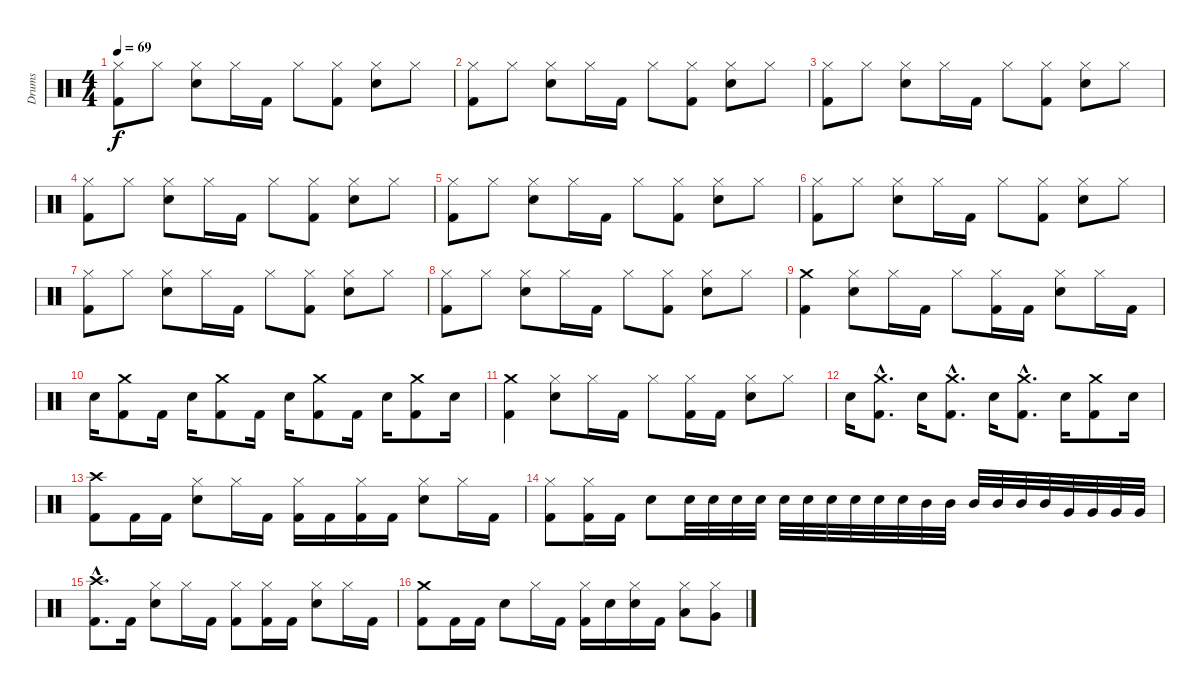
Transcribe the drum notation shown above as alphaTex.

\track ("Drums" "Drums") {instrument percussion}
\staff {score}
\articulation defaults
\ts (4 4)
\tempo 69
\clef neutral
\ks c
("Hi-Hat (closed)" "Kick (hit) 2").8{dy f} "Hi-Hat (closed)".8 ("Hi-Hat (closed)" "Snare (hit) 2").8 "Hi-Hat (closed)".16 "Kick (hit) 2".16 "Hi-Hat (closed)".8 ("Kick (hit) 2" "Hi-Hat (closed)").8 ("Hi-Hat (closed)" "Snare (hit) 2").8 "Hi-Hat (closed)".8 |
("Hi-Hat (closed)" "Kick (hit) 2").8 "Hi-Hat (closed)".8 ("Hi-Hat (closed)" "Snare (hit) 2").8 "Hi-Hat (closed)".16 "Kick (hit) 2".16 "Hi-Hat (closed)".8 ("Kick (hit) 2" "Hi-Hat (closed)").8 ("Hi-Hat (closed)" "Snare (hit) 2").8 "Hi-Hat (closed)".8 |
("Hi-Hat (closed)" "Kick (hit) 2").8 "Hi-Hat (closed)".8 ("Hi-Hat (closed)" "Snare (hit) 2").8 "Hi-Hat (closed)".16 "Kick (hit) 2".16 "Hi-Hat (closed)".8 ("Kick (hit) 2" "Hi-Hat (closed)").8 ("Hi-Hat (closed)" "Snare (hit) 2").8 "Hi-Hat (closed)".8 |
("Hi-Hat (closed)" "Kick (hit) 2").8 "Hi-Hat (closed)".8 ("Hi-Hat (closed)" "Snare (hit) 2").8 "Hi-Hat (closed)".16 "Kick (hit) 2".16 "Hi-Hat (closed)".8 ("Kick (hit) 2" "Hi-Hat (closed)").8 ("Hi-Hat (closed)" "Snare (hit) 2").8 "Hi-Hat (closed)".8 |
("Hi-Hat (closed)" "Kick (hit) 2").8 "Hi-Hat (closed)".8 ("Hi-Hat (closed)" "Snare (hit) 2").8 "Hi-Hat (closed)".16 "Kick (hit) 2".16 "Hi-Hat (closed)".8 ("Kick (hit) 2" "Hi-Hat (closed)").8 ("Hi-Hat (closed)" "Snare (hit) 2").8 "Hi-Hat (closed)".8 |
("Hi-Hat (closed)" "Kick (hit) 2").8 "Hi-Hat (closed)".8 ("Hi-Hat (closed)" "Snare (hit) 2").8 "Hi-Hat (closed)".16 "Kick (hit) 2".16 "Hi-Hat (closed)".8 ("Kick (hit) 2" "Hi-Hat (closed)").8 ("Hi-Hat (closed)" "Snare (hit) 2").8 "Hi-Hat (closed)".8 |
("Hi-Hat (closed)" "Kick (hit) 2").8 "Hi-Hat (closed)".8 ("Hi-Hat (closed)" "Snare (hit) 2").8 "Hi-Hat (closed)".16 "Kick (hit) 2".16 "Hi-Hat (closed)".8 ("Kick (hit) 2" "Hi-Hat (closed)").8 ("Hi-Hat (closed)" "Snare (hit) 2").8 "Hi-Hat (closed)".8 |
("Hi-Hat (closed)" "Kick (hit) 2").8 "Hi-Hat (closed)".8 ("Hi-Hat (closed)" "Snare (hit) 2").8 "Hi-Hat (closed)".16 "Kick (hit) 2".16 "Hi-Hat (closed)".8 ("Kick (hit) 2" "Hi-Hat (closed)").8 ("Hi-Hat (closed)" "Snare (hit) 2").8 "Hi-Hat (closed)".8 |
("Crash medium (hit)" "Kick (hit) 2").4 ("Snare (hit) 2" "Hi-Hat (closed)").8 "Hi-Hat (closed)".16 "Kick (hit) 2".16 "Hi-Hat (closed)".8 ("Hi-Hat (closed)" "Kick (hit) 2").16 "Kick (hit) 2".16 ("Hi-Hat (closed)" "Snare (hit) 2").8 "Hi-Hat (closed)".16 "Kick (hit) 2".16 |
"Snare (hit) 2".16 ("Crash medium (hit)" "Kick (hit) 2").8 "Kick (hit) 2".16 "Snare (hit) 2".16 ("Crash medium (hit)" "Kick (hit) 2").8 "Kick (hit) 2".16 "Snare (hit) 2".16 ("Crash medium (hit)" "Kick (hit) 2").8 "Kick (hit) 2".16 "Snare (hit) 2".16 ("Crash medium (hit)" "Kick (hit) 2").8 "Snare (hit) 2".16 |
("Kick (hit) 2" "Crash medium (hit)").4 ("Hi-Hat (closed)" "Snare (hit) 2").8 "Hi-Hat (closed)".16 "Kick (hit) 2".16 "Hi-Hat (closed)".8 ("Kick (hit) 2" "Hi-Hat (closed)").16 "Kick (hit) 2".16 ("Hi-Hat (closed)" "Snare (hit) 2").8 "Hi-Hat (closed)".8 |
"Snare (hit) 2".16 ("Crash medium (hit)"{hac} "Kick (hit) 2"{hac}).8{d} "Snare (hit) 2".16 ("Crash medium (hit)"{hac} "Kick (hit) 2"{hac}).8{d} "Snare (hit) 2".16 ("Crash medium (hit)"{hac} "Kick (hit) 2"{hac}).8{d} "Snare (hit) 2".16 ("Kick (hit) 2" "Crash medium (hit)").8 "Snare (hit) 2".16 |
("Kick (hit) 2" "Crash high (hit)").8 "Kick (hit) 2".16 "Kick (hit) 2".16 ("Snare (hit) 2" "Hi-Hat (closed)").8 "Hi-Hat (closed)".16 "Kick (hit) 2".16 ("Hi-Hat (closed)" "Kick (hit) 2").16 "Kick (hit) 2".16 ("Hi-Hat (closed)" "Kick (hit) 2").16 "Kick (hit) 2".16 ("Hi-Hat (closed)" "Snare (hit) 2").8 "Hi-Hat (closed)".16 "Kick (hit) 2".16 |
("Hi-Hat (closed)" "Kick (hit) 2").8 ("Hi-Hat (closed)" "Kick (hit) 2").16 "Kick (hit) 2".16 "Snare (hit) 2".8 "Snare (hit) 2".32 "Snare (hit) 2".32 "Snare (hit) 2".32 "Snare (hit) 2".32 "Snare (hit) 2".32 "Snare (hit) 2".32 "Snare (hit) 2".32 "Snare (hit) 2".32 "Snare (hit) 2".32 "Snare (hit) 2".32 "Mid Tom (hit)".32 "Mid Tom (hit)".32 "Mid Tom (hit)".32 "Mid Tom (hit)".32 "Mid Tom (hit)".32 "Mid Tom (hit)".32 "Very Low Tom (hit)".32 "Very Low Tom (hit)".32 "Very Low Tom (hit)".32 "Very Low Tom (hit)".32 |
("Crash high (hit)"{hac} "Kick (hit) 2"{hac}).8{d} "Kick (hit) 2".16 ("Snare (hit) 2" "Hi-Hat (closed)").8 "Hi-Hat (closed)".16 "Kick (hit) 2".16 ("Hi-Hat (closed)" "Kick (hit) 2").8 ("Kick (hit) 2" "Hi-Hat (closed)").16 "Kick (hit) 2".16 ("Snare (hit) 2" "Hi-Hat (closed)").8 "Hi-Hat (closed)".16 "Kick (hit) 2".16 |
("Crash medium (hit)" "Kick (hit) 2").8 "Kick (hit) 2".16 "Kick (hit) 2".16 "Snare (hit) 2".8 "Hi-Hat (closed)".16 "Kick (hit) 2".16 ("Hi-Hat (closed)" "Kick (hit) 2").16 "Snare (hit) 2".16 ("Hi-Hat (closed)" "Snare (hit) 2").16 "Kick (hit) 2".16 ("Hi-Hat (closed)" "Low Tom (hit)").8 ("Hi-Hat (closed)" "Very Low Tom (hit)").8
